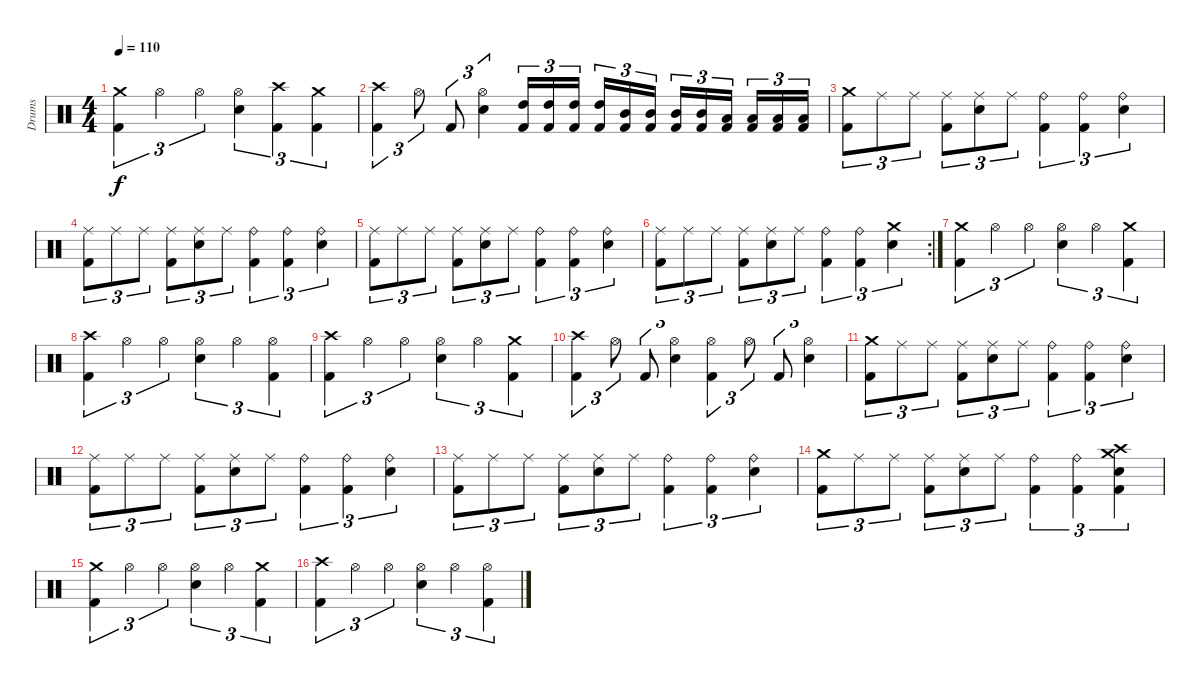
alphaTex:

\track ("Drums" "Drums") {instrument percussion}
\staff {score}
\articulation defaults
\ts (4 4)
\tempo 110
\clef neutral
\ks c
("Kick (hit) 2" "Crash medium (hit)").4{tu (3 2) dy f} "Hi-Hat (open)".4{tu (3 2)} "Hi-Hat (open)".4{tu (3 2)} ("Electric Snare (hit)" "Hi-Hat (open)").4{tu (3 2)} ("Kick (hit) 2" "Crash high (hit)").4{tu (3 2)} ("Kick (hit) 2" "Crash medium (hit)").4{tu (3 2)} |
("Kick (hit) 2" "Crash high (hit)").4{tu (3 2)} "Hi-Hat (open)".8{tu (3 2)} "Kick (hit) 2".8{tu (3 2)} ("Electric Snare (hit)" "Hi-Hat (open)").4{tu (3 2)} ("Kick (hit) 2" "High Tom (hit)").16{tu (3 2)} ("Kick (hit) 2" "High Tom (hit)").16{tu (3 2)} ("Kick (hit) 2" "High Tom (hit)").16{tu (3 2)} ("Kick (hit) 2" "High Tom (hit)").16{tu (3 2)} ("Kick (hit) 2" "Mid Tom (hit)").16{tu (3 2)} ("Kick (hit) 2" "Mid Tom (hit)").16{tu (3 2)} ("Kick (hit) 2" "Mid Tom (hit)").16{tu (3 2)} ("Kick (hit) 2" "Mid Tom (hit)").16{tu (3 2)} ("Kick (hit) 2" "Low Tom (hit)").16{tu (3 2)} ("Kick (hit) 2" "Low Tom (hit)").16{tu (3 2)} ("Kick (hit) 2" "Low Tom (hit)").16{tu (3 2)} ("Kick (hit) 2" "Low Tom (hit)").16{tu (3 2)} |
("Kick (hit) 2" "Crash medium (hit)").8{tu (3 2)} "Ride (middle)".8{tu (3 2)} "Ride (middle)".8{tu (3 2)} ("Kick (hit) 2" "Ride (middle)").8{tu (3 2)} ("Electric Snare (hit)" "Ride (middle)").8{tu (3 2)} "Ride (middle)".8{tu (3 2)} ("Kick (hit) 2" "Ride (bell)").4{tu (3 2)} ("Kick (hit) 2" "Ride (bell)").4{tu (3 2)} ("Electric Snare (hit)" "Ride (bell)").4{tu (3 2)} |
("Kick (hit) 2" "Ride (middle)").8{tu (3 2)} "Ride (middle)".8{tu (3 2)} "Ride (middle)".8{tu (3 2)} ("Kick (hit) 2" "Ride (middle)").8{tu (3 2)} ("Electric Snare (hit)" "Ride (middle)").8{tu (3 2)} "Ride (middle)".8{tu (3 2)} ("Kick (hit) 2" "Ride (bell)").4{tu (3 2)} ("Kick (hit) 2" "Ride (bell)").4{tu (3 2)} ("Electric Snare (hit)" "Ride (bell)").4{tu (3 2)} |
("Kick (hit) 2" "Ride (middle)").8{tu (3 2)} "Ride (middle)".8{tu (3 2)} "Ride (middle)".8{tu (3 2)} ("Kick (hit) 2" "Ride (middle)").8{tu (3 2)} ("Electric Snare (hit)" "Ride (middle)").8{tu (3 2)} "Ride (middle)".8{tu (3 2)} ("Kick (hit) 2" "Ride (bell)").4{tu (3 2)} ("Kick (hit) 2" "Ride (bell)").4{tu (3 2)} ("Electric Snare (hit)" "Ride (bell)").4{tu (3 2)} |
\rc 2
("Kick (hit) 2" "Ride (middle)").8{tu (3 2)} "Ride (middle)".8{tu (3 2)} "Ride (middle)".8{tu (3 2)} ("Kick (hit) 2" "Ride (middle)").8{tu (3 2)} ("Electric Snare (hit)" "Ride (middle)").8{tu (3 2)} "Ride (middle)".8{tu (3 2)} ("Kick (hit) 2" "Ride (bell)").4{tu (3 2)} ("Kick (hit) 2" "Ride (bell)").4{tu (3 2)} ("Electric Snare (hit)" "Crash medium (hit)").4{tu (3 2)} |
("Kick (hit) 2" "Crash medium (hit)").4{tu (3 2)} "Hi-Hat (open)".4{tu (3 2)} "Hi-Hat (open)".4{tu (3 2)} ("Electric Snare (hit)" "Hi-Hat (open)").4{tu (3 2)} "Hi-Hat (open)".4{tu (3 2)} ("Kick (hit) 2" "Crash medium (hit)").4{tu (3 2)} |
("Kick (hit) 2" "Crash high (hit)").4{tu (3 2)} "Hi-Hat (open)".4{tu (3 2)} "Hi-Hat (open)".4{tu (3 2)} ("Snare (hit) 2" "Hi-Hat (open)").4{tu (3 2)} "Hi-Hat (open)".4{tu (3 2)} ("Kick (hit) 2" "Hi-Hat (open)").4{tu (3 2)} |
("Kick (hit) 2" "Crash high (hit)").4{tu (3 2)} "Hi-Hat (open)".4{tu (3 2)} "Hi-Hat (open)".4{tu (3 2)} ("Snare (hit) 2" "Hi-Hat (open)").4{tu (3 2)} "Hi-Hat (open)".4{tu (3 2)} ("Kick (hit) 2" "Crash medium (hit)").4{tu (3 2)} |
("Kick (hit) 2" "Crash high (hit)").4{tu (3 2)} "Hi-Hat (open)".8{tu (3 2)} "Kick (hit) 2".8{tu (3 2)} ("Electric Snare (hit)" "Hi-Hat (open)").4{tu (3 2)} ("Kick (hit) 2" "Hi-Hat (open)").4{tu (3 2)} "Hi-Hat (open)".8{tu (3 2)} "Kick (hit) 2".8{tu (3 2)} ("Electric Snare (hit)" "Hi-Hat (open)").4{tu (3 2)} |
("Kick (hit) 2" "Crash medium (hit)").8{tu (3 2)} "Ride (middle)".8{tu (3 2)} "Ride (middle)".8{tu (3 2)} ("Kick (hit) 2" "Ride (middle)").8{tu (3 2)} ("Electric Snare (hit)" "Ride (middle)").8{tu (3 2)} "Ride (middle)".8{tu (3 2)} ("Kick (hit) 2" "Ride (bell)").4{tu (3 2)} ("Kick (hit) 2" "Ride (bell)").4{tu (3 2)} ("Electric Snare (hit)" "Ride (bell)").4{tu (3 2)} |
("Kick (hit) 2" "Ride (middle)").8{tu (3 2)} "Ride (middle)".8{tu (3 2)} "Ride (middle)".8{tu (3 2)} ("Kick (hit) 2" "Ride (middle)").8{tu (3 2)} ("Electric Snare (hit)" "Ride (middle)").8{tu (3 2)} "Ride (middle)".8{tu (3 2)} ("Kick (hit) 2" "Ride (bell)").4{tu (3 2)} ("Kick (hit) 2" "Ride (bell)").4{tu (3 2)} ("Electric Snare (hit)" "Ride (bell)").4{tu (3 2)} |
("Kick (hit) 2" "Ride (middle)").8{tu (3 2)} "Ride (middle)".8{tu (3 2)} "Ride (middle)".8{tu (3 2)} ("Kick (hit) 2" "Ride (middle)").8{tu (3 2)} ("Electric Snare (hit)" "Ride (middle)").8{tu (3 2)} "Ride (middle)".8{tu (3 2)} ("Kick (hit) 2" "Ride (bell)").4{tu (3 2)} ("Kick (hit) 2" "Ride (bell)").4{tu (3 2)} ("Electric Snare (hit)" "Ride (bell)").4{tu (3 2)} |
("Kick (hit) 2" "Crash medium (hit)").8{tu (3 2)} "Ride (middle)".8{tu (3 2)} "Ride (middle)".8{tu (3 2)} ("Kick (hit) 2" "Ride (middle)").8{tu (3 2)} ("Electric Snare (hit)" "Ride (middle)").8{tu (3 2)} "Ride (middle)".8{tu (3 2)} ("Kick (hit) 2" "Ride (bell)").4{tu (3 2)} ("Kick (hit) 2" "Ride (bell)").4{tu (3 2)} ("Kick (hit) 2" "Electric Snare (hit)" "Crash high (hit)" "Crash medium (hit)").4{tu (3 2)} |
("Kick (hit) 2" "Crash medium (hit)").4{tu (3 2) volume 10} "Hi-Hat (open)".4{tu (3 2)} "Hi-Hat (open)".4{tu (3 2)} ("Electric Snare (hit)" "Hi-Hat (open)").4{tu (3 2)} "Hi-Hat (open)".4{tu (3 2)} ("Kick (hit) 2" "Crash medium (hit)").4{tu (3 2)} |
("Kick (hit) 2" "Crash high (hit)").4{tu (3 2)} "Hi-Hat (open)".4{tu (3 2)} "Hi-Hat (open)".4{tu (3 2)} ("Snare (hit) 2" "Hi-Hat (open)").4{tu (3 2)} "Hi-Hat (open)".4{tu (3 2)} ("Kick (hit) 2" "Hi-Hat (open)").4{tu (3 2)}
